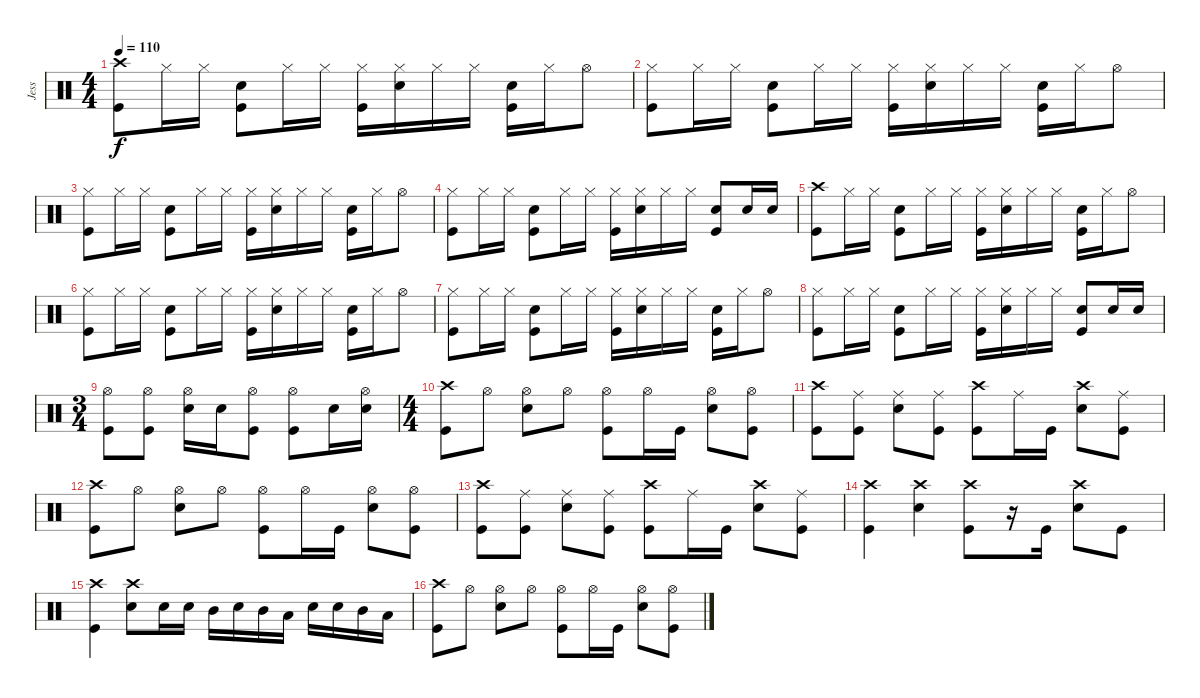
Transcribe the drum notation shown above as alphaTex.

\track ("Jess" "Jess") {instrument percussion}
\staff {score}
\articulation defaults
\ts (4 4)
\tempo 110
\clef neutral
\ks c
("Crash high (hit)" "Kick (hit)").8{dy f} "Hi-Hat (closed)".16 "Hi-Hat (closed)".16 ("Electric Snare (hit)" "Kick (hit)").8 "Hi-Hat (closed)".16 "Hi-Hat (closed)".16 ("Hi-Hat (closed)" "Kick (hit)").16 ("Hi-Hat (closed)" "Electric Snare (hit)").16 "Hi-Hat (closed)".16 "Hi-Hat (closed)".16 ("Electric Snare (hit)" "Kick (hit)").16 "Hi-Hat (closed)".16 "Hi-Hat (open)".8 |
("Hi-Hat (closed)" "Kick (hit)").8 "Hi-Hat (closed)".16 "Hi-Hat (closed)".16 ("Electric Snare (hit)" "Kick (hit)").8 "Hi-Hat (closed)".16 "Hi-Hat (closed)".16 ("Hi-Hat (closed)" "Kick (hit)").16 ("Hi-Hat (closed)" "Electric Snare (hit)").16 "Hi-Hat (closed)".16 "Hi-Hat (closed)".16 ("Electric Snare (hit)" "Kick (hit)").16 "Hi-Hat (closed)".16 "Hi-Hat (open)".8 |
("Hi-Hat (closed)" "Kick (hit)").8 "Hi-Hat (closed)".16 "Hi-Hat (closed)".16 ("Electric Snare (hit)" "Kick (hit)").8 "Hi-Hat (closed)".16 "Hi-Hat (closed)".16 ("Hi-Hat (closed)" "Kick (hit)").16 ("Hi-Hat (closed)" "Electric Snare (hit)").16 "Hi-Hat (closed)".16 "Hi-Hat (closed)".16 ("Electric Snare (hit)" "Kick (hit)").16 "Hi-Hat (closed)".16 "Hi-Hat (open)".8 |
("Hi-Hat (closed)" "Kick (hit)").8 "Hi-Hat (closed)".16 "Hi-Hat (closed)".16 ("Electric Snare (hit)" "Kick (hit)").8 "Hi-Hat (closed)".16 "Hi-Hat (closed)".16 ("Hi-Hat (closed)" "Kick (hit)").16 ("Hi-Hat (closed)" "Electric Snare (hit)").16 "Hi-Hat (closed)".16 "Hi-Hat (closed)".16 ("Electric Snare (hit)" "Kick (hit)").8 "Electric Snare (hit)".16 "Electric Snare (hit)".16 |
("Crash high (hit)" "Kick (hit)").8 "Hi-Hat (closed)".16 "Hi-Hat (closed)".16 ("Electric Snare (hit)" "Kick (hit)").8 "Hi-Hat (closed)".16 "Hi-Hat (closed)".16 ("Hi-Hat (closed)" "Kick (hit)").16 ("Hi-Hat (closed)" "Electric Snare (hit)").16 "Hi-Hat (closed)".16 "Hi-Hat (closed)".16 ("Electric Snare (hit)" "Kick (hit)").16 "Hi-Hat (closed)".16 "Hi-Hat (open)".8 |
("Hi-Hat (closed)" "Kick (hit)").8 "Hi-Hat (closed)".16 "Hi-Hat (closed)".16 ("Electric Snare (hit)" "Kick (hit)").8 "Hi-Hat (closed)".16 "Hi-Hat (closed)".16 ("Hi-Hat (closed)" "Kick (hit)").16 ("Hi-Hat (closed)" "Electric Snare (hit)").16 "Hi-Hat (closed)".16 "Hi-Hat (closed)".16 ("Electric Snare (hit)" "Kick (hit)").16 "Hi-Hat (closed)".16 "Hi-Hat (open)".8 |
("Hi-Hat (closed)" "Kick (hit)").8 "Hi-Hat (closed)".16 "Hi-Hat (closed)".16 ("Electric Snare (hit)" "Kick (hit)").8 "Hi-Hat (closed)".16 "Hi-Hat (closed)".16 ("Hi-Hat (closed)" "Kick (hit)").16 ("Hi-Hat (closed)" "Electric Snare (hit)").16 "Hi-Hat (closed)".16 "Hi-Hat (closed)".16 ("Electric Snare (hit)" "Kick (hit)").16 "Hi-Hat (closed)".16 "Hi-Hat (open)".8 |
("Hi-Hat (closed)" "Kick (hit)").8 "Hi-Hat (closed)".16 "Hi-Hat (closed)".16 ("Electric Snare (hit)" "Kick (hit)").8 "Hi-Hat (closed)".16 "Hi-Hat (closed)".16 ("Hi-Hat (closed)" "Kick (hit)").16 ("Hi-Hat (closed)" "Electric Snare (hit)").16 "Hi-Hat (closed)".16 "Hi-Hat (closed)".16 ("Electric Snare (hit)" "Kick (hit)").8 "Electric Snare (hit)".16 "Electric Snare (hit)".16 |
\ts (3 4)
("Hi-Hat (open)" "Kick (hit)").8 ("Hi-Hat (open)" "Kick (hit)").8 ("Hi-Hat (open)" "Electric Snare (hit)").16 "Electric Snare (hit)".16 ("Hi-Hat (open)" "Kick (hit)").8 ("Hi-Hat (open)" "Kick (hit)").8 "Electric Snare (hit)".16 ("Hi-Hat (open)" "Electric Snare (hit)").16 |
\ts (4 4)
("Crash high (hit)" "Kick (hit)").8 "Hi-Hat (open)".8 ("Hi-Hat (open)" "Electric Snare (hit)").8 "Hi-Hat (open)".8 ("Hi-Hat (open)" "Kick (hit)").8 "Hi-Hat (open)".16 "Kick (hit)".16 ("Hi-Hat (open)" "Electric Snare (hit)").8 ("Hi-Hat (open)" "Kick (hit)").8 |
("Crash high (hit)" "Kick (hit)").8 ("Ride (middle)" "Kick (hit)").8 ("Ride (middle)" "Electric Snare (hit)").8 ("Ride (middle)" "Kick (hit)").8 ("Crash high (hit)" "Kick (hit)").8 "Ride (middle)".16 "Kick (hit)".16 ("Crash high (hit)" "Electric Snare (hit)").8 ("Ride (middle)" "Kick (hit)").8 |
("Crash high (hit)" "Kick (hit)").8 "Hi-Hat (open)".8 ("Hi-Hat (open)" "Electric Snare (hit)").8 "Hi-Hat (open)".8 ("Hi-Hat (open)" "Kick (hit)").8 "Hi-Hat (open)".16 "Kick (hit)".16 ("Hi-Hat (open)" "Electric Snare (hit)").8 ("Hi-Hat (open)" "Kick (hit)").8 |
("Crash high (hit)" "Kick (hit)").8 ("Ride (middle)" "Kick (hit)").8 ("Ride (middle)" "Electric Snare (hit)").8 ("Ride (middle)" "Kick (hit)").8 ("Crash high (hit)" "Kick (hit)").8 "Ride (middle)".16 "Kick (hit)".16 ("Crash high (hit)" "Electric Snare (hit)").8 ("Ride (middle)" "Kick (hit)").8 |
("Crash high (hit)" "Kick (hit)").4 ("Crash high (hit)" "Electric Snare (hit)").4 ("Crash high (hit)" "Kick (hit)").8 r.16 "Kick (hit)".16 ("Crash high (hit)" "Electric Snare (hit)").8 "Kick (hit)".8 |
("Crash high (hit)" "Kick (hit)").4 ("Crash high (hit)" "Electric Snare (hit)").8 "Electric Snare (hit)".16 "Electric Snare (hit)".16 "Mid Tom (hit)".16 "Electric Snare (hit)".16 "Mid Tom (hit)".16 "Low Tom (hit)".16 "Electric Snare (hit)".16 "Electric Snare (hit)".16 "Mid Tom (hit)".16 "Low Tom (hit)".16 |
("Crash high (hit)" "Kick (hit)").8 "Hi-Hat (open)".8 ("Hi-Hat (open)" "Electric Snare (hit)").8 "Hi-Hat (open)".8 ("Hi-Hat (open)" "Kick (hit)").8 "Hi-Hat (open)".16 "Kick (hit)".16 ("Hi-Hat (open)" "Electric Snare (hit)").8 ("Hi-Hat (open)" "Kick (hit)").8
